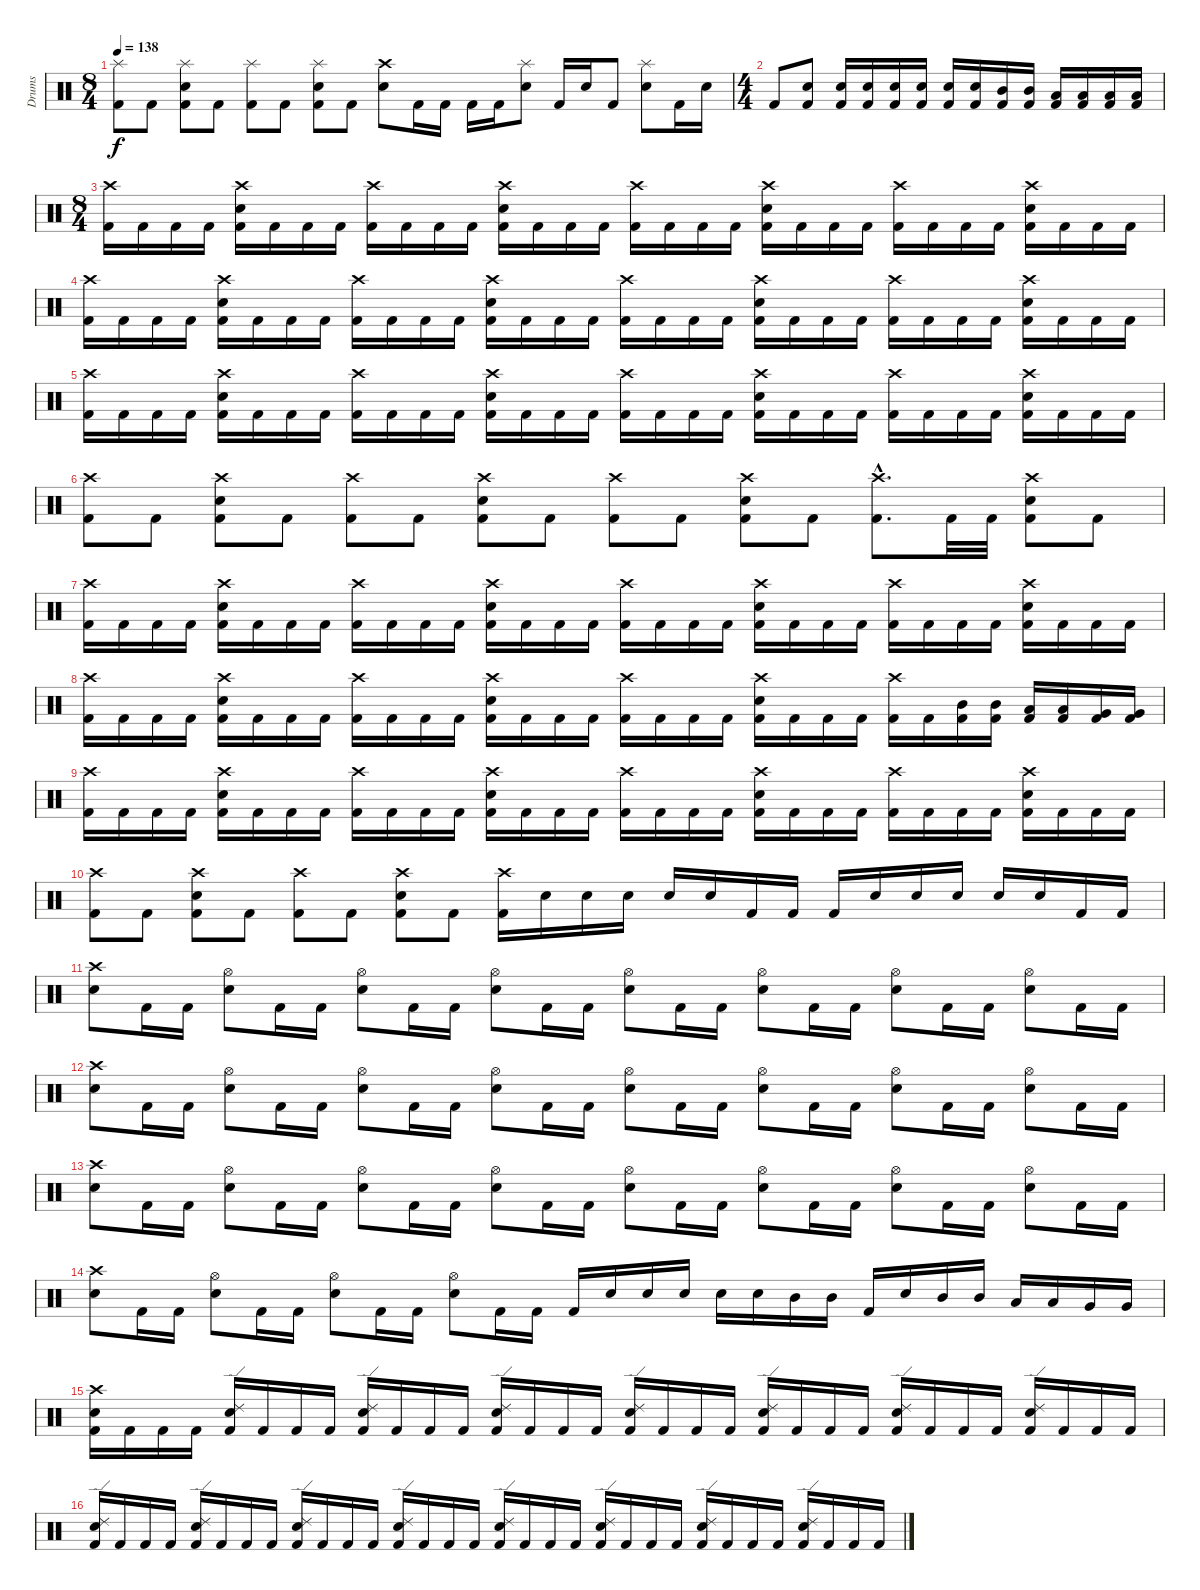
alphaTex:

\track ("Drums" "Drums") {instrument percussion}
\staff {score}
\articulation defaults
\ts (8 4)
\tempo 138
\clef neutral
\ks c
("Splash (hit)" "Kick (hit) 2").8{dy f} "Kick (hit) 2".8 ("Splash (hit)" "Snare (hit) 2" "Kick (hit) 2").8 "Kick (hit) 2".8 ("Splash (hit)" "Kick (hit) 2").8 "Kick (hit) 2".8 ("Splash (hit)" "Snare (hit) 2" "Kick (hit) 2").8 "Kick (hit) 2".8 ("Crash high (hit)" "Snare (hit) 2").8 "Kick (hit) 2".16 "Kick (hit) 2".16 "Kick (hit) 2".16 "Kick (hit) 2".16 ("Splash (hit)" "Snare (hit) 2").8 "Kick (hit) 2".16 "Snare (hit) 2".16 "Kick (hit) 2".8 ("Splash (hit)" "Snare (hit) 2").8 "Kick (hit) 2".16 "Snare (hit) 2".16 |
\ts (4 4)
"Kick (hit) 2".8 ("Snare (hit) 2" "Kick (hit) 2").8 ("Snare (hit) 2" "Kick (hit) 2").16 ("Snare (hit) 2" "Kick (hit) 2").16 ("Snare (hit) 2" "Kick (hit) 2").16 ("Snare (hit) 2" "Kick (hit) 2").16 ("Snare (hit) 2" "Kick (hit) 2").16 ("Snare (hit) 2" "Kick (hit) 2").16 ("Mid Tom (hit)" "Kick (hit) 2").16 ("Mid Tom (hit)" "Kick (hit) 2").16 ("Low Tom (hit)" "Kick (hit) 2").16 ("Low Tom (hit)" "Kick (hit) 2").16 ("Low Tom (hit)" "Kick (hit) 2").16 ("Low Tom (hit)" "Kick (hit) 2").16 |
\ts (8 4)
("Crash high (hit)" "Kick (hit) 2").16 "Kick (hit) 2".16 "Kick (hit) 2".16 "Kick (hit) 2".16 ("Crash high (hit)" "Snare (hit) 2" "Kick (hit) 2").16 "Kick (hit) 2".16 "Kick (hit) 2".16 "Kick (hit) 2".16 ("Crash high (hit)" "Kick (hit) 2").16 "Kick (hit) 2".16 "Kick (hit) 2".16 "Kick (hit) 2".16 ("Crash high (hit)" "Snare (hit) 2" "Kick (hit) 2").16 "Kick (hit) 2".16 "Kick (hit) 2".16 "Kick (hit) 2".16 ("Crash high (hit)" "Kick (hit) 2").16 "Kick (hit) 2".16 "Kick (hit) 2".16 "Kick (hit) 2".16 ("Crash high (hit)" "Snare (hit) 2" "Kick (hit) 2").16 "Kick (hit) 2".16 "Kick (hit) 2".16 "Kick (hit) 2".16 ("Crash high (hit)" "Kick (hit) 2").16 "Kick (hit) 2".16 "Kick (hit) 2".16 "Kick (hit) 2".16 ("Crash high (hit)" "Snare (hit) 2" "Kick (hit) 2").16 "Kick (hit) 2".16 "Kick (hit) 2".16 "Kick (hit) 2".16 |
("Crash high (hit)" "Kick (hit) 2").16 "Kick (hit) 2".16 "Kick (hit) 2".16 "Kick (hit) 2".16 ("Crash high (hit)" "Snare (hit) 2" "Kick (hit) 2").16 "Kick (hit) 2".16 "Kick (hit) 2".16 "Kick (hit) 2".16 ("Crash high (hit)" "Kick (hit) 2").16 "Kick (hit) 2".16 "Kick (hit) 2".16 "Kick (hit) 2".16 ("Crash high (hit)" "Snare (hit) 2" "Kick (hit) 2").16 "Kick (hit) 2".16 "Kick (hit) 2".16 "Kick (hit) 2".16 ("Crash high (hit)" "Kick (hit) 2").16 "Kick (hit) 2".16 "Kick (hit) 2".16 "Kick (hit) 2".16 ("Crash high (hit)" "Snare (hit) 2" "Kick (hit) 2").16 "Kick (hit) 2".16 "Kick (hit) 2".16 "Kick (hit) 2".16 ("Crash high (hit)" "Kick (hit) 2").16 "Kick (hit) 2".16 "Kick (hit) 2".16 "Kick (hit) 2".16 ("Crash high (hit)" "Snare (hit) 2" "Kick (hit) 2").16 "Kick (hit) 2".16 "Kick (hit) 2".16 "Kick (hit) 2".16 |
("Crash high (hit)" "Kick (hit) 2").16 "Kick (hit) 2".16 "Kick (hit) 2".16 "Kick (hit) 2".16 ("Crash high (hit)" "Snare (hit) 2" "Kick (hit) 2").16 "Kick (hit) 2".16 "Kick (hit) 2".16 "Kick (hit) 2".16 ("Crash high (hit)" "Kick (hit) 2").16 "Kick (hit) 2".16 "Kick (hit) 2".16 "Kick (hit) 2".16 ("Crash high (hit)" "Snare (hit) 2" "Kick (hit) 2").16 "Kick (hit) 2".16 "Kick (hit) 2".16 "Kick (hit) 2".16 ("Crash high (hit)" "Kick (hit) 2").16 "Kick (hit) 2".16 "Kick (hit) 2".16 "Kick (hit) 2".16 ("Crash high (hit)" "Snare (hit) 2" "Kick (hit) 2").16 "Kick (hit) 2".16 "Kick (hit) 2".16 "Kick (hit) 2".16 ("Crash high (hit)" "Kick (hit) 2").16 "Kick (hit) 2".16 "Kick (hit) 2".16 "Kick (hit) 2".16 ("Crash high (hit)" "Snare (hit) 2" "Kick (hit) 2").16 "Kick (hit) 2".16 "Kick (hit) 2".16 "Kick (hit) 2".16 |
("Crash high (hit)" "Kick (hit) 2").8 "Kick (hit) 2".8 ("Crash high (hit)" "Snare (hit) 2" "Kick (hit) 2").8 "Kick (hit) 2".8 ("Crash high (hit)" "Kick (hit) 2").8 "Kick (hit) 2".8 ("Crash high (hit)" "Snare (hit) 2" "Kick (hit) 2").8 "Kick (hit) 2".8 ("Crash high (hit)" "Kick (hit) 2").8 "Kick (hit) 2".8 ("Crash high (hit)" "Snare (hit) 2" "Kick (hit) 2").8 "Kick (hit) 2".8 ("Crash high (hit)"{hac} "Kick (hit) 2"{hac}).8{d} "Kick (hit) 2".32 "Kick (hit) 2".32 ("Crash high (hit)" "Snare (hit) 2" "Kick (hit) 2").8 "Kick (hit) 2".8 |
("Crash high (hit)" "Kick (hit) 2").16 "Kick (hit) 2".16 "Kick (hit) 2".16 "Kick (hit) 2".16 ("Crash high (hit)" "Snare (hit) 2" "Kick (hit) 2").16 "Kick (hit) 2".16 "Kick (hit) 2".16 "Kick (hit) 2".16 ("Crash high (hit)" "Kick (hit) 2").16 "Kick (hit) 2".16 "Kick (hit) 2".16 "Kick (hit) 2".16 ("Crash high (hit)" "Snare (hit) 2" "Kick (hit) 2").16 "Kick (hit) 2".16 "Kick (hit) 2".16 "Kick (hit) 2".16 ("Crash high (hit)" "Kick (hit) 2").16 "Kick (hit) 2".16 "Kick (hit) 2".16 "Kick (hit) 2".16 ("Crash high (hit)" "Snare (hit) 2" "Kick (hit) 2").16 "Kick (hit) 2".16 "Kick (hit) 2".16 "Kick (hit) 2".16 ("Crash high (hit)" "Kick (hit) 2").16 "Kick (hit) 2".16 "Kick (hit) 2".16 "Kick (hit) 2".16 ("Crash high (hit)" "Snare (hit) 2" "Kick (hit) 2").16 "Kick (hit) 2".16 "Kick (hit) 2".16 "Kick (hit) 2".16 |
("Crash high (hit)" "Kick (hit) 2").16 "Kick (hit) 2".16 "Kick (hit) 2".16 "Kick (hit) 2".16 ("Crash high (hit)" "Snare (hit) 2" "Kick (hit) 2").16 "Kick (hit) 2".16 "Kick (hit) 2".16 "Kick (hit) 2".16 ("Crash high (hit)" "Kick (hit) 2").16 "Kick (hit) 2".16 "Kick (hit) 2".16 "Kick (hit) 2".16 ("Crash high (hit)" "Snare (hit) 2" "Kick (hit) 2").16 "Kick (hit) 2".16 "Kick (hit) 2".16 "Kick (hit) 2".16 ("Crash high (hit)" "Kick (hit) 2").16 "Kick (hit) 2".16 "Kick (hit) 2".16 "Kick (hit) 2".16 ("Crash high (hit)" "Snare (hit) 2" "Kick (hit) 2").16 "Kick (hit) 2".16 "Kick (hit) 2".16 "Kick (hit) 2".16 ("Crash high (hit)" "Kick (hit) 2").16 "Kick (hit) 2".16 ("Mid Tom (hit)" "Kick (hit) 2").16 ("Mid Tom (hit)" "Kick (hit) 2").16 ("Low Tom (hit)" "Kick (hit) 2").16 ("Low Tom (hit)" "Kick (hit) 2").16 ("Very Low Tom (hit)" "Kick (hit) 2").16 ("Very Low Tom (hit)" "Kick (hit) 2").16 |
("Crash high (hit)" "Kick (hit) 2").16 "Kick (hit) 2".16 "Kick (hit) 2".16 "Kick (hit) 2".16 ("Crash high (hit)" "Snare (hit) 2" "Kick (hit) 2").16 "Kick (hit) 2".16 "Kick (hit) 2".16 "Kick (hit) 2".16 ("Crash high (hit)" "Kick (hit) 2").16 "Kick (hit) 2".16 "Kick (hit) 2".16 "Kick (hit) 2".16 ("Crash high (hit)" "Snare (hit) 2" "Kick (hit) 2").16 "Kick (hit) 2".16 "Kick (hit) 2".16 "Kick (hit) 2".16 ("Crash high (hit)" "Kick (hit) 2").16 "Kick (hit) 2".16 "Kick (hit) 2".16 "Kick (hit) 2".16 ("Crash high (hit)" "Snare (hit) 2" "Kick (hit) 2").16 "Kick (hit) 2".16 "Kick (hit) 2".16 "Kick (hit) 2".16 ("Crash high (hit)" "Kick (hit) 2").16 "Kick (hit) 2".16 "Kick (hit) 2".16 "Kick (hit) 2".16 ("Crash high (hit)" "Snare (hit) 2" "Kick (hit) 2").16 "Kick (hit) 2".16 "Kick (hit) 2".16 "Kick (hit) 2".16 |
("Crash high (hit)" "Kick (hit) 2").8 "Kick (hit) 2".8 ("Crash high (hit)" "Snare (hit) 2" "Kick (hit) 2").8 "Kick (hit) 2".8 ("Crash high (hit)" "Kick (hit) 2").8 "Kick (hit) 2".8 ("Crash high (hit)" "Snare (hit) 2" "Kick (hit) 2").8 "Kick (hit) 2".8 ("Crash high (hit)" "Kick (hit) 2").16 "Snare (hit) 2".16 "Snare (hit) 2".16 "Snare (hit) 2".16 "Snare (hit) 2".16 "Snare (hit) 2".16 "Kick (hit) 2".16 "Kick (hit) 2".16 "Kick (hit) 2".16 "Snare (hit) 2".16 "Snare (hit) 2".16 "Snare (hit) 2".16 "Snare (hit) 2".16 "Snare (hit) 2".16 "Kick (hit) 2".16 "Kick (hit) 2".16 |
("Crash high (hit)" "Snare (hit) 2").8 "Kick (hit) 2".16 "Kick (hit) 2".16 ("Hi-Hat (open)" "Snare (hit) 2").8 "Kick (hit) 2".16 "Kick (hit) 2".16 ("Hi-Hat (open)" "Snare (hit) 2").8 "Kick (hit) 2".16 "Kick (hit) 2".16 ("Hi-Hat (open)" "Snare (hit) 2").8 "Kick (hit) 2".16 "Kick (hit) 2".16 ("Hi-Hat (open)" "Snare (hit) 2").8 "Kick (hit) 2".16 "Kick (hit) 2".16 ("Hi-Hat (open)" "Snare (hit) 2").8 "Kick (hit) 2".16 "Kick (hit) 2".16 ("Hi-Hat (open)" "Snare (hit) 2").8 "Kick (hit) 2".16 "Kick (hit) 2".16 ("Hi-Hat (open)" "Snare (hit) 2").8 "Kick (hit) 2".16 "Kick (hit) 2".16 |
("Crash high (hit)" "Snare (hit) 2").8 "Kick (hit) 2".16 "Kick (hit) 2".16 ("Hi-Hat (open)" "Snare (hit) 2").8 "Kick (hit) 2".16 "Kick (hit) 2".16 ("Hi-Hat (open)" "Snare (hit) 2").8 "Kick (hit) 2".16 "Kick (hit) 2".16 ("Hi-Hat (open)" "Snare (hit) 2").8 "Kick (hit) 2".16 "Kick (hit) 2".16 ("Hi-Hat (open)" "Snare (hit) 2").8 "Kick (hit) 2".16 "Kick (hit) 2".16 ("Hi-Hat (open)" "Snare (hit) 2").8 "Kick (hit) 2".16 "Kick (hit) 2".16 ("Hi-Hat (open)" "Snare (hit) 2").8 "Kick (hit) 2".16 "Kick (hit) 2".16 ("Hi-Hat (open)" "Snare (hit) 2").8 "Kick (hit) 2".16 "Kick (hit) 2".16 |
("Crash high (hit)" "Snare (hit) 2").8 "Kick (hit) 2".16 "Kick (hit) 2".16 ("Hi-Hat (open)" "Snare (hit) 2").8 "Kick (hit) 2".16 "Kick (hit) 2".16 ("Hi-Hat (open)" "Snare (hit) 2").8 "Kick (hit) 2".16 "Kick (hit) 2".16 ("Hi-Hat (open)" "Snare (hit) 2").8 "Kick (hit) 2".16 "Kick (hit) 2".16 ("Hi-Hat (open)" "Snare (hit) 2").8 "Kick (hit) 2".16 "Kick (hit) 2".16 ("Hi-Hat (open)" "Snare (hit) 2").8 "Kick (hit) 2".16 "Kick (hit) 2".16 ("Hi-Hat (open)" "Snare (hit) 2").8 "Kick (hit) 2".16 "Kick (hit) 2".16 ("Hi-Hat (open)" "Snare (hit) 2").8 "Kick (hit) 2".16 "Kick (hit) 2".16 |
("Crash high (hit)" "Snare (hit) 2").8 "Kick (hit) 2".16 "Kick (hit) 2".16 ("Hi-Hat (open)" "Snare (hit) 2").8 "Kick (hit) 2".16 "Kick (hit) 2".16 ("Hi-Hat (open)" "Snare (hit) 2").8 "Kick (hit) 2".16 "Kick (hit) 2".16 ("Hi-Hat (open)" "Snare (hit) 2").8 "Kick (hit) 2".16 "Kick (hit) 2".16 "Kick (hit) 2".16 "Snare (hit) 2".16 "Snare (hit) 2".16 "Snare (hit) 2".16 "Snare (hit) 2".16 "Snare (hit) 2".16 "Mid Tom (hit)".16 "Mid Tom (hit)".16 "Kick (hit) 2".16 "Snare (hit) 2".16 "Mid Tom (hit)".16 "Mid Tom (hit)".16 "Low Tom (hit)".16 "Low Tom (hit)".16 "Very Low Tom (hit)".16 "Very Low Tom (hit)".16 |
("Crash high (hit)" "Snare (hit) 2" "Kick (hit) 2").16 "Kick (hit) 2".16 "Kick (hit) 2".16 "Kick (hit) 2".16 ("Ride (edge) 2" "Snare (hit) 2" "Kick (hit) 2").16 "Kick (hit) 2".16 "Kick (hit) 2".16 "Kick (hit) 2".16 ("Ride (edge) 2" "Snare (hit) 2" "Kick (hit) 2").16 "Kick (hit) 2".16 "Kick (hit) 2".16 "Kick (hit) 2".16 ("Ride (edge) 2" "Snare (hit) 2" "Kick (hit) 2").16 "Kick (hit) 2".16 "Kick (hit) 2".16 "Kick (hit) 2".16 ("Ride (edge) 2" "Snare (hit) 2" "Kick (hit) 2").16 "Kick (hit) 2".16 "Kick (hit) 2".16 "Kick (hit) 2".16 ("Ride (edge) 2" "Snare (hit) 2" "Kick (hit) 2").16 "Kick (hit) 2".16 "Kick (hit) 2".16 "Kick (hit) 2".16 ("Ride (edge) 2" "Snare (hit) 2" "Kick (hit) 2").16 "Kick (hit) 2".16 "Kick (hit) 2".16 "Kick (hit) 2".16 ("Ride (edge) 2" "Snare (hit) 2" "Kick (hit) 2").16 "Kick (hit) 2".16 "Kick (hit) 2".16 "Kick (hit) 2".16 |
("Ride (edge) 2" "Snare (hit) 2" "Kick (hit) 2").16 "Kick (hit) 2".16 "Kick (hit) 2".16 "Kick (hit) 2".16 ("Ride (edge) 2" "Snare (hit) 2" "Kick (hit) 2").16 "Kick (hit) 2".16 "Kick (hit) 2".16 "Kick (hit) 2".16 ("Ride (edge) 2" "Snare (hit) 2" "Kick (hit) 2").16 "Kick (hit) 2".16 "Kick (hit) 2".16 "Kick (hit) 2".16 ("Ride (edge) 2" "Snare (hit) 2" "Kick (hit) 2").16 "Kick (hit) 2".16 "Kick (hit) 2".16 "Kick (hit) 2".16 ("Ride (edge) 2" "Snare (hit) 2" "Kick (hit) 2").16 "Kick (hit) 2".16 "Kick (hit) 2".16 "Kick (hit) 2".16 ("Ride (edge) 2" "Snare (hit) 2" "Kick (hit) 2").16 "Kick (hit) 2".16 "Kick (hit) 2".16 "Kick (hit) 2".16 ("Ride (edge) 2" "Snare (hit) 2" "Kick (hit) 2").16 "Kick (hit) 2".16 "Kick (hit) 2".16 "Kick (hit) 2".16 ("Ride (edge) 2" "Snare (hit) 2" "Kick (hit) 2").16 "Kick (hit) 2".16 "Kick (hit) 2".16 "Kick (hit) 2".16
